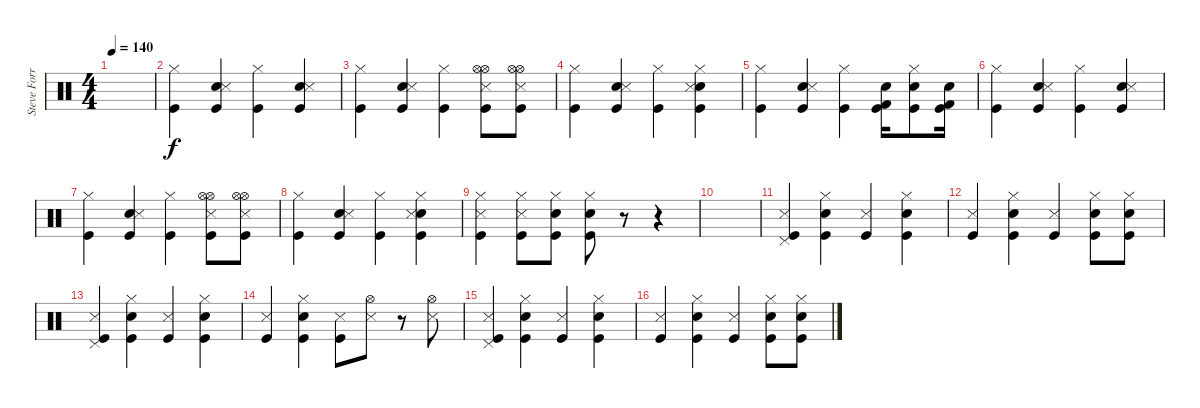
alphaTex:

\track ("Steve Forrest - Drums" "Steve Forr") {instrument percussion}
\staff {score}
\articulation defaults
\ts (4 4)
\tempo 140
\clef neutral
\ks c
|
("Hi-Hat (closed)" "Kick (hit)").4 ("Electric Snare (hit)" "Snare (side stick) 3" "Kick (hit)").4 ("Hi-Hat (closed)" "Kick (hit)").4 ("Electric Snare (hit)" "Snare (side stick) 3" "Kick (hit)").4 |
("Hi-Hat (closed)" "Kick (hit)").4 ("Electric Snare (hit)" "Snare (side stick) 3" "Kick (hit)").4 ("Hi-Hat (closed)" "Kick (hit)").4 ("Hi-Hat (open)" "Hi-Hat (open)" "Snare (side stick) 3" "Kick (hit)").8 ("Hi-Hat (open)" "Hi-Hat (open)" "Snare (side stick) 3" "Kick (hit)").8 |
("Hi-Hat (closed)" "Kick (hit)").4 ("Electric Snare (hit)" "Snare (side stick) 3" "Kick (hit)").4 ("Hi-Hat (closed)" "Kick (hit)").4 ("Electric Snare (hit)" "Snare (side stick) 3" "Hi-Hat (closed)" "Kick (hit)").4 |
("Hi-Hat (closed)" "Kick (hit)").4 ("Electric Snare (hit)" "Snare (side stick) 3" "Kick (hit)").4 ("Hi-Hat (closed)" "Kick (hit)").4 ("Kick (hit) 2" "Electric Snare (hit)" "Kick (hit)").16 ("Hi-Hat (closed)" "Electric Snare (hit)" "Kick (hit)").8 ("Kick (hit) 2" "Electric Snare (hit)" "Kick (hit)").16 |
("Hi-Hat (closed)" "Kick (hit)").4 ("Electric Snare (hit)" "Snare (side stick) 3" "Kick (hit)").4 ("Hi-Hat (closed)" "Kick (hit)").4 ("Electric Snare (hit)" "Snare (side stick) 3" "Kick (hit)").4 |
("Hi-Hat (closed)" "Kick (hit)").4 ("Electric Snare (hit)" "Snare (side stick) 3" "Kick (hit)").4 ("Hi-Hat (closed)" "Kick (hit)").4 ("Hi-Hat (open)" "Hi-Hat (open)" "Snare (side stick) 3" "Kick (hit)").8 ("Hi-Hat (open)" "Hi-Hat (open)" "Snare (side stick) 3" "Kick (hit)").8 |
("Hi-Hat (closed)" "Kick (hit)").4 ("Electric Snare (hit)" "Snare (side stick) 3" "Kick (hit)").4 ("Hi-Hat (closed)" "Kick (hit)").4 ("Electric Snare (hit)" "Snare (side stick) 3" "Hi-Hat (closed)" "Kick (hit)").4 |
("Snare (side stick) 3" "Hi-Hat (closed)" "Kick (hit)").4 ("Snare (side stick) 3" "Hi-Hat (closed)" "Kick (hit)").8 ("Snare (hit) 2" "Hi-Hat (closed)" "Kick (hit)").8 ("Snare (hit) 2" "Hi-Hat (closed)" "Kick (hit)").8 r.8 r.4 |
|
("Pedal Hi-Hat (hit)" "Snare (side stick) 3" "Kick (hit)").4 ("Snare (hit) 2" "Hi-Hat (closed)" "Kick (hit)").4 ("Snare (side stick) 3" "Kick (hit)").4 ("Snare (hit) 2" "Hi-Hat (closed)" "Kick (hit)").4 |
("Snare (side stick) 3" "Kick (hit)").4 ("Snare (hit) 2" "Hi-Hat (closed)" "Kick (hit)").4 ("Snare (side stick) 3" "Kick (hit)").4 ("Snare (hit) 2" "Hi-Hat (closed)" "Kick (hit)").8 ("Snare (hit) 2" "Hi-Hat (closed)" "Kick (hit)").8 |
("Pedal Hi-Hat (hit)" "Snare (side stick) 3" "Kick (hit)").4 ("Snare (hit) 2" "Hi-Hat (closed)" "Kick (hit)").4 ("Snare (side stick) 3" "Kick (hit)").4 ("Snare (hit) 2" "Hi-Hat (closed)" "Kick (hit)").4 |
("Snare (side stick) 3" "Kick (hit)").4 ("Snare (hit) 2" "Hi-Hat (closed)" "Kick (hit)").4 ("Snare (side stick) 3" "Kick (hit)").8 ("Hi-Hat (open)" "Snare (side stick) 3").8 r.8 ("Hi-Hat (open)" "Snare (side stick) 3").8 |
("Pedal Hi-Hat (hit)" "Snare (side stick) 3" "Kick (hit)").4 ("Snare (hit) 2" "Hi-Hat (closed)" "Kick (hit)").4 ("Snare (side stick) 3" "Kick (hit)").4 ("Snare (hit) 2" "Hi-Hat (closed)" "Kick (hit)").4 |
("Snare (side stick) 3" "Kick (hit)").4 ("Snare (hit) 2" "Hi-Hat (closed)" "Kick (hit)").4 ("Snare (side stick) 3" "Kick (hit)").4 ("Snare (hit) 2" "Hi-Hat (closed)" "Kick (hit)").8 ("Snare (hit) 2" "Hi-Hat (closed)" "Kick (hit)").8
